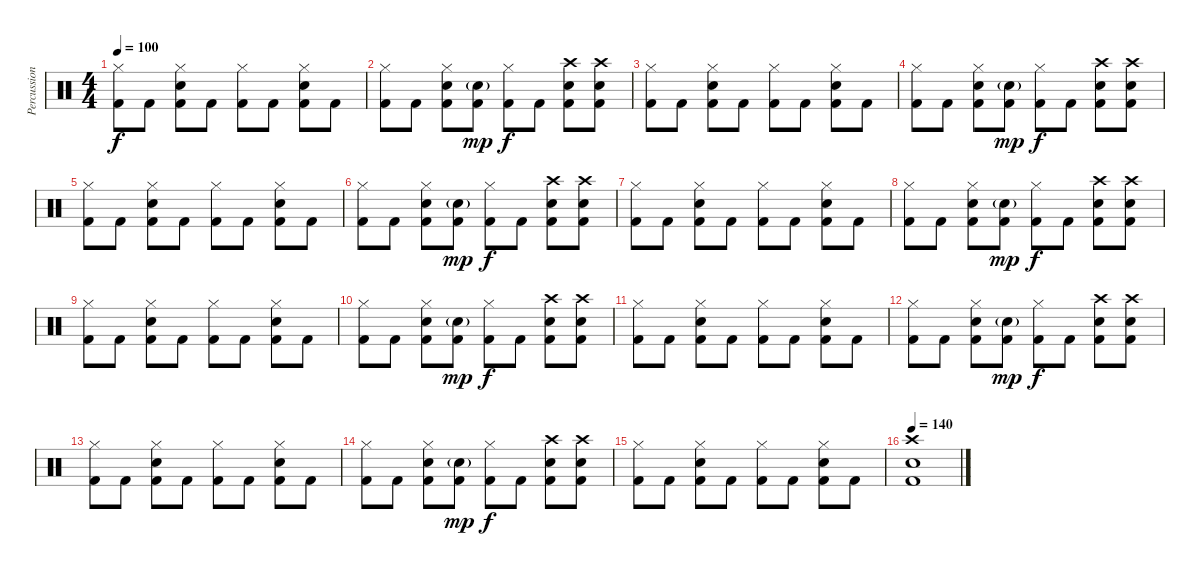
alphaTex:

\track ("Percussions" "Percussion") {instrument percussion}
\staff {score}
\articulation defaults
\ts (4 4)
\tempo 100
\clef neutral
\ks c
("Hi-Hat (closed)" "Kick (hit) 2").8{dy f} "Kick (hit) 2".8 ("Hi-Hat (closed)" "Snare (hit) 2" "Kick (hit) 2").8 "Kick (hit) 2".8 ("Hi-Hat (closed)" "Kick (hit) 2").8 "Kick (hit) 2".8 ("Hi-Hat (closed)" "Snare (hit) 2" "Kick (hit) 2").8 "Kick (hit) 2".8 |
("Hi-Hat (closed)" "Kick (hit) 2").8 "Kick (hit) 2".8 ("Hi-Hat (closed)" "Snare (hit) 2" "Kick (hit) 2").8 ("Snare (hit) 2"{g} "Kick (hit) 2").8{dy mp} ("Hi-Hat (closed)" "Kick (hit) 2").8{dy f} "Kick (hit) 2".8 ("Crash high (hit)" "Snare (hit) 2" "Kick (hit) 2").8 ("Crash high (hit)" "Snare (hit) 2" "Kick (hit) 2").8 |
("Hi-Hat (closed)" "Kick (hit) 2").8 "Kick (hit) 2".8 ("Hi-Hat (closed)" "Snare (hit) 2" "Kick (hit) 2").8 "Kick (hit) 2".8 ("Hi-Hat (closed)" "Kick (hit) 2").8 "Kick (hit) 2".8 ("Hi-Hat (closed)" "Snare (hit) 2" "Kick (hit) 2").8 "Kick (hit) 2".8 |
("Hi-Hat (closed)" "Kick (hit) 2").8 "Kick (hit) 2".8 ("Hi-Hat (closed)" "Snare (hit) 2" "Kick (hit) 2").8 ("Snare (hit) 2"{g} "Kick (hit) 2").8{dy mp} ("Hi-Hat (closed)" "Kick (hit) 2").8{dy f} "Kick (hit) 2".8 ("Crash high (hit)" "Snare (hit) 2" "Kick (hit) 2").8 ("Crash high (hit)" "Snare (hit) 2" "Kick (hit) 2").8 |
("Hi-Hat (closed)" "Kick (hit) 2").8 "Kick (hit) 2".8 ("Hi-Hat (closed)" "Snare (hit) 2" "Kick (hit) 2").8 "Kick (hit) 2".8 ("Hi-Hat (closed)" "Kick (hit) 2").8 "Kick (hit) 2".8 ("Hi-Hat (closed)" "Snare (hit) 2" "Kick (hit) 2").8 "Kick (hit) 2".8 |
("Hi-Hat (closed)" "Kick (hit) 2").8 "Kick (hit) 2".8 ("Hi-Hat (closed)" "Snare (hit) 2" "Kick (hit) 2").8 ("Snare (hit) 2"{g} "Kick (hit) 2").8{dy mp} ("Hi-Hat (closed)" "Kick (hit) 2").8{dy f} "Kick (hit) 2".8 ("Crash high (hit)" "Snare (hit) 2" "Kick (hit) 2").8 ("Crash high (hit)" "Snare (hit) 2" "Kick (hit) 2").8 |
("Hi-Hat (closed)" "Kick (hit) 2").8 "Kick (hit) 2".8 ("Hi-Hat (closed)" "Snare (hit) 2" "Kick (hit) 2").8 "Kick (hit) 2".8 ("Hi-Hat (closed)" "Kick (hit) 2").8 "Kick (hit) 2".8 ("Hi-Hat (closed)" "Snare (hit) 2" "Kick (hit) 2").8 "Kick (hit) 2".8 |
("Hi-Hat (closed)" "Kick (hit) 2").8 "Kick (hit) 2".8 ("Hi-Hat (closed)" "Snare (hit) 2" "Kick (hit) 2").8 ("Snare (hit) 2"{g} "Kick (hit) 2").8{dy mp} ("Hi-Hat (closed)" "Kick (hit) 2").8{dy f} "Kick (hit) 2".8 ("Crash high (hit)" "Snare (hit) 2" "Kick (hit) 2").8 ("Crash high (hit)" "Snare (hit) 2" "Kick (hit) 2").8 |
("Hi-Hat (closed)" "Kick (hit) 2").8 "Kick (hit) 2".8 ("Hi-Hat (closed)" "Snare (hit) 2" "Kick (hit) 2").8 "Kick (hit) 2".8 ("Hi-Hat (closed)" "Kick (hit) 2").8 "Kick (hit) 2".8 ("Hi-Hat (closed)" "Snare (hit) 2" "Kick (hit) 2").8 "Kick (hit) 2".8 |
("Hi-Hat (closed)" "Kick (hit) 2").8 "Kick (hit) 2".8 ("Hi-Hat (closed)" "Snare (hit) 2" "Kick (hit) 2").8 ("Snare (hit) 2"{g} "Kick (hit) 2").8{dy mp} ("Hi-Hat (closed)" "Kick (hit) 2").8{dy f} "Kick (hit) 2".8 ("Crash high (hit)" "Snare (hit) 2" "Kick (hit) 2").8 ("Crash high (hit)" "Snare (hit) 2" "Kick (hit) 2").8 |
("Hi-Hat (closed)" "Kick (hit) 2").8 "Kick (hit) 2".8 ("Hi-Hat (closed)" "Snare (hit) 2" "Kick (hit) 2").8 "Kick (hit) 2".8 ("Hi-Hat (closed)" "Kick (hit) 2").8 "Kick (hit) 2".8 ("Hi-Hat (closed)" "Snare (hit) 2" "Kick (hit) 2").8 "Kick (hit) 2".8 |
("Hi-Hat (closed)" "Kick (hit) 2").8 "Kick (hit) 2".8 ("Hi-Hat (closed)" "Snare (hit) 2" "Kick (hit) 2").8 ("Snare (hit) 2"{g} "Kick (hit) 2").8{dy mp} ("Hi-Hat (closed)" "Kick (hit) 2").8{dy f} "Kick (hit) 2".8 ("Crash high (hit)" "Snare (hit) 2" "Kick (hit) 2").8 ("Crash high (hit)" "Snare (hit) 2" "Kick (hit) 2").8 |
("Hi-Hat (closed)" "Kick (hit) 2").8 "Kick (hit) 2".8 ("Hi-Hat (closed)" "Snare (hit) 2" "Kick (hit) 2").8 "Kick (hit) 2".8 ("Hi-Hat (closed)" "Kick (hit) 2").8 "Kick (hit) 2".8 ("Hi-Hat (closed)" "Snare (hit) 2" "Kick (hit) 2").8 "Kick (hit) 2".8 |
("Hi-Hat (closed)" "Kick (hit) 2").8 "Kick (hit) 2".8 ("Hi-Hat (closed)" "Snare (hit) 2" "Kick (hit) 2").8 ("Snare (hit) 2"{g} "Kick (hit) 2").8{dy mp} ("Hi-Hat (closed)" "Kick (hit) 2").8{dy f} "Kick (hit) 2".8 ("Crash high (hit)" "Snare (hit) 2" "Kick (hit) 2").8 ("Crash high (hit)" "Snare (hit) 2" "Kick (hit) 2").8 |
("Hi-Hat (closed)" "Kick (hit) 2").8 "Kick (hit) 2".8 ("Hi-Hat (closed)" "Snare (hit) 2" "Kick (hit) 2").8 "Kick (hit) 2".8 ("Hi-Hat (closed)" "Kick (hit) 2").8 "Kick (hit) 2".8 ("Hi-Hat (closed)" "Snare (hit) 2" "Kick (hit) 2").8 "Kick (hit) 2".8 |
\tempo 140
("Kick (hit) 2" "Snare (hit) 2" "Crash high (hit)").1{volume 16}
